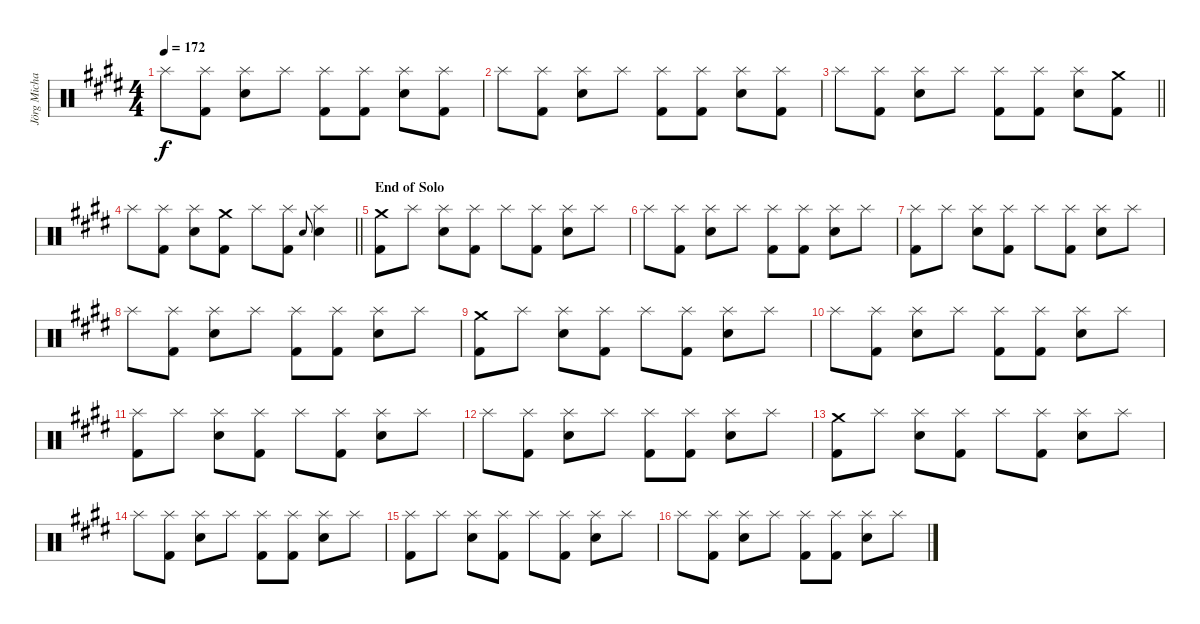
\track ("Jörg Michael" "Jörg Micha") {instrument percussion}
\staff {score}
\articulation defaults
\ts (4 4)
\tempo 172
\clef neutral
\ks c#minor "Splash (hit)".8{dy f}
("Splash (hit)" "Kick (hit) 2").8 ("Splash (hit)" "Snare (hit) 2").8 "Splash (hit)".8 ("Splash (hit)" "Kick (hit) 2").8 ("Splash (hit)" "Kick (hit) 2").8 ("Splash (hit)" "Snare (hit) 2").8 ("Splash (hit)" "Kick (hit) 2").8 |
"Splash (hit)".8 ("Splash (hit)" "Kick (hit) 2").8 ("Splash (hit)" "Snare (hit) 2").8 "Splash (hit)".8 ("Splash (hit)" "Kick (hit) 2").8 ("Splash (hit)" "Kick (hit) 2").8 ("Splash (hit)" "Snare (hit) 2").8 ("Splash (hit)" "Kick (hit) 2").8 |
\barLineRight lightlight "Splash (hit)".8
("Splash (hit)" "Kick (hit) 2").8 ("Splash (hit)" "Snare (hit) 2").8 "Splash (hit)".8 ("Splash (hit)" "Kick (hit) 2").8 ("Splash (hit)" "Kick (hit) 2").8 ("Splash (hit)" "Snare (hit) 2").8 ("Crash medium (hit)" "Kick (hit) 2").8 |
\barLineRight lightlight "Splash (hit)".8
("Splash (hit)" "Kick (hit) 2").8 ("Splash (hit)" "Snare (hit) 2").8 ("Crash medium (hit)" "Kick (hit) 2").8 "Splash (hit)".8 ("Splash (hit)" "Kick (hit) 2").8 "Snare (hit) 2".8{gr onbeat} ("Splash (hit)" "Snare (hit) 2").4 |
\section ("" "End of Solo")
("Crash medium (hit)" "Kick (hit) 2").8 "Splash (hit)".8 ("Splash (hit)" "Snare (hit) 2").8 ("Splash (hit)" "Kick (hit) 2").8 "Splash (hit)".8 ("Splash (hit)" "Kick (hit) 2").8 ("Splash (hit)" "Snare (hit) 2").8 "Splash (hit)".8 |
"Splash (hit)".8 ("Splash (hit)" "Kick (hit) 2").8 ("Splash (hit)" "Snare (hit) 2").8 "Splash (hit)".8 ("Splash (hit)" "Kick (hit) 2").8 ("Splash (hit)" "Kick (hit) 2").8 ("Splash (hit)" "Snare (hit) 2").8 "Splash (hit)".8 |
("Splash (hit)" "Kick (hit) 2").8 "Splash (hit)".8 ("Splash (hit)" "Snare (hit) 2").8 ("Splash (hit)" "Kick (hit) 2").8 "Splash (hit)".8 ("Splash (hit)" "Kick (hit) 2").8 ("Splash (hit)" "Snare (hit) 2").8 "Splash (hit)".8 |
"Splash (hit)".8 ("Splash (hit)" "Kick (hit) 2").8 ("Splash (hit)" "Snare (hit) 2").8 "Splash (hit)".8 ("Splash (hit)" "Kick (hit) 2").8 ("Splash (hit)" "Kick (hit) 2").8 ("Splash (hit)" "Snare (hit) 2").8 "Splash (hit)".8 |
("Crash medium (hit)" "Kick (hit) 2").8 "Splash (hit)".8 ("Splash (hit)" "Snare (hit) 2").8 ("Splash (hit)" "Kick (hit) 2").8 "Splash (hit)".8 ("Splash (hit)" "Kick (hit) 2").8 ("Splash (hit)" "Snare (hit) 2").8 "Splash (hit)".8 |
"Splash (hit)".8 ("Splash (hit)" "Kick (hit) 2").8 ("Splash (hit)" "Snare (hit) 2").8 "Splash (hit)".8 ("Splash (hit)" "Kick (hit) 2").8 ("Splash (hit)" "Kick (hit) 2").8 ("Splash (hit)" "Snare (hit) 2").8 "Splash (hit)".8 |
("Splash (hit)" "Kick (hit) 2").8 "Splash (hit)".8 ("Splash (hit)" "Snare (hit) 2").8 ("Splash (hit)" "Kick (hit) 2").8 "Splash (hit)".8 ("Splash (hit)" "Kick (hit) 2").8 ("Splash (hit)" "Snare (hit) 2").8 "Splash (hit)".8 |
"Splash (hit)".8 ("Splash (hit)" "Kick (hit) 2").8 ("Splash (hit)" "Snare (hit) 2").8 "Splash (hit)".8 ("Splash (hit)" "Kick (hit) 2").8 ("Splash (hit)" "Kick (hit) 2").8 ("Splash (hit)" "Snare (hit) 2").8 "Splash (hit)".8 |
("Crash medium (hit)" "Kick (hit) 2").8 "Splash (hit)".8 ("Splash (hit)" "Snare (hit) 2").8 ("Splash (hit)" "Kick (hit) 2").8 "Splash (hit)".8 ("Splash (hit)" "Kick (hit) 2").8 ("Splash (hit)" "Snare (hit) 2").8 "Splash (hit)".8 |
"Splash (hit)".8 ("Splash (hit)" "Kick (hit) 2").8 ("Splash (hit)" "Snare (hit) 2").8 "Splash (hit)".8 ("Splash (hit)" "Kick (hit) 2").8 ("Splash (hit)" "Kick (hit) 2").8 ("Splash (hit)" "Snare (hit) 2").8 "Splash (hit)".8 |
("Splash (hit)" "Kick (hit) 2").8 "Splash (hit)".8 ("Splash (hit)" "Snare (hit) 2").8 ("Splash (hit)" "Kick (hit) 2").8 "Splash (hit)".8 ("Splash (hit)" "Kick (hit) 2").8 ("Splash (hit)" "Snare (hit) 2").8 "Splash (hit)".8 |
"Splash (hit)".8 ("Splash (hit)" "Kick (hit) 2").8 ("Splash (hit)" "Snare (hit) 2").8 "Splash (hit)".8 ("Splash (hit)" "Kick (hit) 2").8 ("Splash (hit)" "Kick (hit) 2").8 ("Splash (hit)" "Snare (hit) 2").8 "Splash (hit)".8
